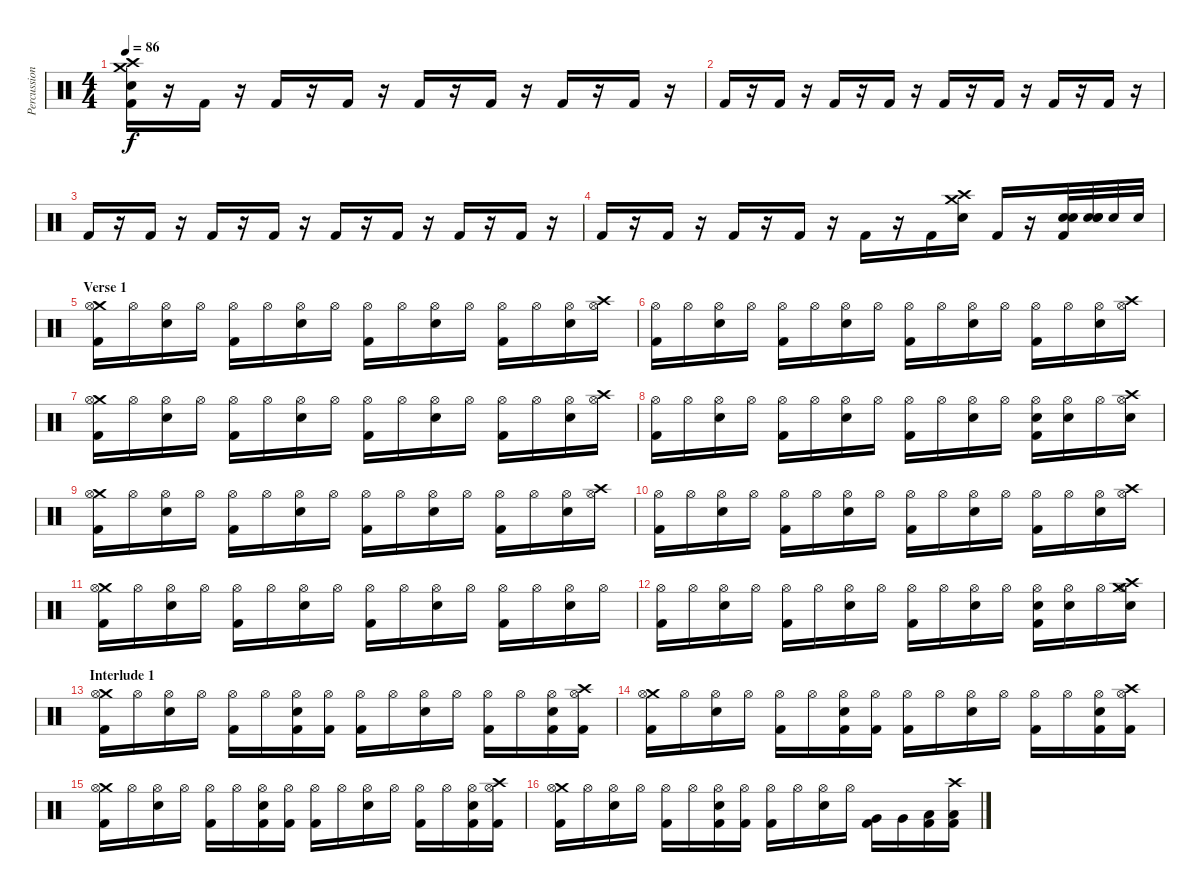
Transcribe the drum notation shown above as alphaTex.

\track ("Percussion" "Percussion") {instrument percussion}
\staff {score}
\articulation defaults
\ts (4 4)
\tempo 86
\clef neutral
\ks c
("Crash high (hit)" "Crash medium (hit)" "Electric Snare (hit)" "Kick (hit) 2").16{dy f} r.16 "Kick (hit) 2".16 r.16 "Kick (hit) 2".16 r.16 "Kick (hit) 2".16 r.16 "Kick (hit) 2".16 r.16 "Kick (hit) 2".16 r.16 "Kick (hit) 2".16 r.16 "Kick (hit) 2".16 r.16 |
"Kick (hit) 2".16 r.16 "Kick (hit) 2".16 r.16 "Kick (hit) 2".16 r.16 "Kick (hit) 2".16 r.16 "Kick (hit) 2".16 r.16 "Kick (hit) 2".16 r.16 "Kick (hit) 2".16 r.16 "Kick (hit) 2".16 r.16 |
"Kick (hit) 2".16 r.16 "Kick (hit) 2".16 r.16 "Kick (hit) 2".16 r.16 "Kick (hit) 2".16 r.16 "Kick (hit) 2".16 r.16 "Kick (hit) 2".16 r.16 "Kick (hit) 2".16 r.16 "Kick (hit) 2".16 r.16 |
"Kick (hit) 2".16 r.16 "Kick (hit) 2".16 r.16 "Kick (hit) 2".16 r.16 "Kick (hit) 2".16 r.16 "Kick (hit) 2".16 r.16 "Kick (hit) 2".16 ("Crash medium (hit)" "Crash high (hit)" "Electric Snare (hit)").16 "Kick (hit) 2".16 r.16 ("Snare (hit) 2" "Snare (hit) 2" "Kick (hit) 2").32 ("Snare (hit) 2" "Snare (hit) 2" "Snare (hit) 2").32 "Snare (hit) 2".32 "Snare (hit) 2".32 |
\section ("" "Verse 1")
("Crash medium (hit)" "Hi-Hat (open)" "Kick (hit) 2").16 "Hi-Hat (open)".16 ("Hi-Hat (open)" "Electric Snare (hit)").16 "Hi-Hat (open)".16 ("Hi-Hat (open)" "Kick (hit) 2").16 "Hi-Hat (open)".16 ("Hi-Hat (open)" "Electric Snare (hit)").16 "Hi-Hat (open)".16 ("Hi-Hat (open)" "Kick (hit) 2").16 "Hi-Hat (open)".16 ("Hi-Hat (open)" "Electric Snare (hit)").16 "Hi-Hat (open)".16 ("Hi-Hat (open)" "Kick (hit) 2").16 "Hi-Hat (open)".16 ("Hi-Hat (open)" "Electric Snare (hit)").16 ("Crash high (hit)" "Hi-Hat (open)").16 |
("Hi-Hat (open)" "Kick (hit) 2").16 "Hi-Hat (open)".16 ("Hi-Hat (open)" "Electric Snare (hit)").16 "Hi-Hat (open)".16 ("Hi-Hat (open)" "Kick (hit) 2").16 "Hi-Hat (open)".16 ("Hi-Hat (open)" "Electric Snare (hit)").16 "Hi-Hat (open)".16 ("Hi-Hat (open)" "Kick (hit) 2").16 "Hi-Hat (open)".16 ("Hi-Hat (open)" "Electric Snare (hit)").16 "Hi-Hat (open)".16 ("Hi-Hat (open)" "Kick (hit) 2").16 "Hi-Hat (open)".16 ("Hi-Hat (open)" "Electric Snare (hit)").16 ("Crash high (hit)" "Hi-Hat (open)").16 |
("Crash medium (hit)" "Hi-Hat (open)" "Kick (hit) 2").16 "Hi-Hat (open)".16 ("Hi-Hat (open)" "Electric Snare (hit)").16 "Hi-Hat (open)".16 ("Hi-Hat (open)" "Kick (hit) 2").16 "Hi-Hat (open)".16 ("Hi-Hat (open)" "Electric Snare (hit)").16 "Hi-Hat (open)".16 ("Hi-Hat (open)" "Kick (hit) 2").16 "Hi-Hat (open)".16 ("Hi-Hat (open)" "Electric Snare (hit)").16 "Hi-Hat (open)".16 ("Hi-Hat (open)" "Kick (hit) 2").16 "Hi-Hat (open)".16 ("Hi-Hat (open)" "Electric Snare (hit)").16 ("Crash high (hit)" "Hi-Hat (open)").16 |
("Hi-Hat (open)" "Kick (hit) 2").16 "Hi-Hat (open)".16 ("Hi-Hat (open)" "Electric Snare (hit)").16 "Hi-Hat (open)".16 ("Hi-Hat (open)" "Kick (hit) 2").16 "Hi-Hat (open)".16 ("Hi-Hat (open)" "Electric Snare (hit)").16 "Hi-Hat (open)".16 ("Hi-Hat (open)" "Kick (hit) 2").16 "Hi-Hat (open)".16 ("Hi-Hat (open)" "Electric Snare (hit)").16 "Hi-Hat (open)".16 ("Hi-Hat (open)" "Electric Snare (hit)" "Kick (hit) 2").16 ("Hi-Hat (open)" "Electric Snare (hit)").16 "Hi-Hat (open)".16 ("Crash high (hit)" "Hi-Hat (open)" "Electric Snare (hit)").16 |
("Crash medium (hit)" "Hi-Hat (open)" "Kick (hit) 2").16 "Hi-Hat (open)".16 ("Hi-Hat (open)" "Electric Snare (hit)").16 "Hi-Hat (open)".16 ("Hi-Hat (open)" "Kick (hit) 2").16 "Hi-Hat (open)".16 ("Hi-Hat (open)" "Electric Snare (hit)").16 "Hi-Hat (open)".16 ("Hi-Hat (open)" "Kick (hit) 2").16 "Hi-Hat (open)".16 ("Hi-Hat (open)" "Electric Snare (hit)").16 "Hi-Hat (open)".16 ("Hi-Hat (open)" "Kick (hit) 2").16 "Hi-Hat (open)".16 ("Hi-Hat (open)" "Electric Snare (hit)").16 ("Crash high (hit)" "Hi-Hat (open)").16 |
("Hi-Hat (open)" "Kick (hit) 2").16 "Hi-Hat (open)".16 ("Hi-Hat (open)" "Electric Snare (hit)").16 "Hi-Hat (open)".16 ("Hi-Hat (open)" "Kick (hit) 2").16 "Hi-Hat (open)".16 ("Hi-Hat (open)" "Electric Snare (hit)").16 "Hi-Hat (open)".16 ("Hi-Hat (open)" "Kick (hit) 2").16 "Hi-Hat (open)".16 ("Hi-Hat (open)" "Electric Snare (hit)").16 "Hi-Hat (open)".16 ("Hi-Hat (open)" "Kick (hit) 2").16 "Hi-Hat (open)".16 ("Hi-Hat (open)" "Electric Snare (hit)").16 ("Crash high (hit)" "Hi-Hat (open)").16 |
("Crash medium (hit)" "Hi-Hat (open)" "Kick (hit) 2").16 "Hi-Hat (open)".16 ("Hi-Hat (open)" "Electric Snare (hit)").16 "Hi-Hat (open)".16 ("Hi-Hat (open)" "Kick (hit) 2").16 "Hi-Hat (open)".16 ("Hi-Hat (open)" "Electric Snare (hit)").16 "Hi-Hat (open)".16 ("Hi-Hat (open)" "Kick (hit) 2").16 "Hi-Hat (open)".16 ("Hi-Hat (open)" "Electric Snare (hit)").16 "Hi-Hat (open)".16 ("Hi-Hat (open)" "Kick (hit) 2").16 "Hi-Hat (open)".16 ("Hi-Hat (open)" "Electric Snare (hit)").16 "Hi-Hat (open)".16 |
("Hi-Hat (open)" "Kick (hit) 2").16 "Hi-Hat (open)".16 ("Hi-Hat (open)" "Electric Snare (hit)").16 "Hi-Hat (open)".16 ("Hi-Hat (open)" "Kick (hit) 2").16 "Hi-Hat (open)".16 ("Hi-Hat (open)" "Electric Snare (hit)").16 "Hi-Hat (open)".16 ("Hi-Hat (open)" "Kick (hit) 2").16 "Hi-Hat (open)".16 ("Hi-Hat (open)" "Electric Snare (hit)").16 "Hi-Hat (open)".16 ("Hi-Hat (open)" "Electric Snare (hit)" "Kick (hit) 2").16 ("Hi-Hat (open)" "Electric Snare (hit)").16 "Hi-Hat (open)".16 ("Crash medium (hit)" "Crash high (hit)" "Hi-Hat (open)" "Electric Snare (hit)").16 |
\section ("" "Interlude 1")
("Crash medium (hit)" "Hi-Hat (open)" "Kick (hit) 2").16 "Hi-Hat (open)".16 ("Hi-Hat (open)" "Electric Snare (hit)").16 "Hi-Hat (open)".16 ("Hi-Hat (open)" "Kick (hit) 2").16 "Hi-Hat (open)".16 ("Hi-Hat (open)" "Electric Snare (hit)" "Kick (hit) 2").16 ("Hi-Hat (open)" "Kick (hit) 2").16 ("Hi-Hat (open)" "Kick (hit) 2").16 "Hi-Hat (open)".16 ("Hi-Hat (open)" "Electric Snare (hit)").16 "Hi-Hat (open)".16 ("Hi-Hat (open)" "Kick (hit) 2").16 "Hi-Hat (open)".16 ("Hi-Hat (open)" "Electric Snare (hit)" "Kick (hit) 2").16 ("Crash high (hit)" "Hi-Hat (open)" "Kick (hit) 2").16 |
("Crash medium (hit)" "Hi-Hat (open)" "Kick (hit) 2").16 "Hi-Hat (open)".16 ("Hi-Hat (open)" "Electric Snare (hit)").16 "Hi-Hat (open)".16 ("Hi-Hat (open)" "Kick (hit) 2").16 "Hi-Hat (open)".16 ("Hi-Hat (open)" "Electric Snare (hit)" "Kick (hit) 2").16 ("Hi-Hat (open)" "Kick (hit) 2").16 ("Hi-Hat (open)" "Kick (hit) 2").16 "Hi-Hat (open)".16 ("Hi-Hat (open)" "Electric Snare (hit)").16 "Hi-Hat (open)".16 ("Hi-Hat (open)" "Kick (hit) 2").16 "Hi-Hat (open)".16 ("Hi-Hat (open)" "Electric Snare (hit)" "Kick (hit) 2").16 ("Crash high (hit)" "Hi-Hat (open)" "Kick (hit) 2").16 |
("Crash medium (hit)" "Hi-Hat (open)" "Kick (hit) 2").16 "Hi-Hat (open)".16 ("Hi-Hat (open)" "Electric Snare (hit)").16 "Hi-Hat (open)".16 ("Hi-Hat (open)" "Kick (hit) 2").16 "Hi-Hat (open)".16 ("Hi-Hat (open)" "Electric Snare (hit)" "Kick (hit) 2").16 ("Hi-Hat (open)" "Kick (hit) 2").16 ("Hi-Hat (open)" "Kick (hit) 2").16 "Hi-Hat (open)".16 ("Hi-Hat (open)" "Electric Snare (hit)").16 "Hi-Hat (open)".16 ("Hi-Hat (open)" "Kick (hit) 2").16 "Hi-Hat (open)".16 ("Hi-Hat (open)" "Electric Snare (hit)" "Kick (hit) 2").16 ("Crash high (hit)" "Hi-Hat (open)" "Kick (hit) 2").16 |
("Crash medium (hit)" "Hi-Hat (open)" "Kick (hit) 2").16 "Hi-Hat (open)".16 ("Hi-Hat (open)" "Electric Snare (hit)").16 "Hi-Hat (open)".16 ("Hi-Hat (open)" "Kick (hit) 2").16 "Hi-Hat (open)".16 ("Hi-Hat (open)" "Electric Snare (hit)" "Kick (hit) 2").16 ("Hi-Hat (open)" "Kick (hit) 2").16 ("Hi-Hat (open)" "Kick (hit) 2").16 "Hi-Hat (open)".16 ("Hi-Hat (open)" "Electric Snare (hit)").16 "Hi-Hat (open)".16 ("Very Low Tom (hit)" "Kick (hit) 2").16 "Very Low Tom (hit)".16 ("Low Floor Tom (hit)" "Kick (hit) 2").16 ("Crash high (hit)" "Low Floor Tom (hit)" "Kick (hit) 2").16
